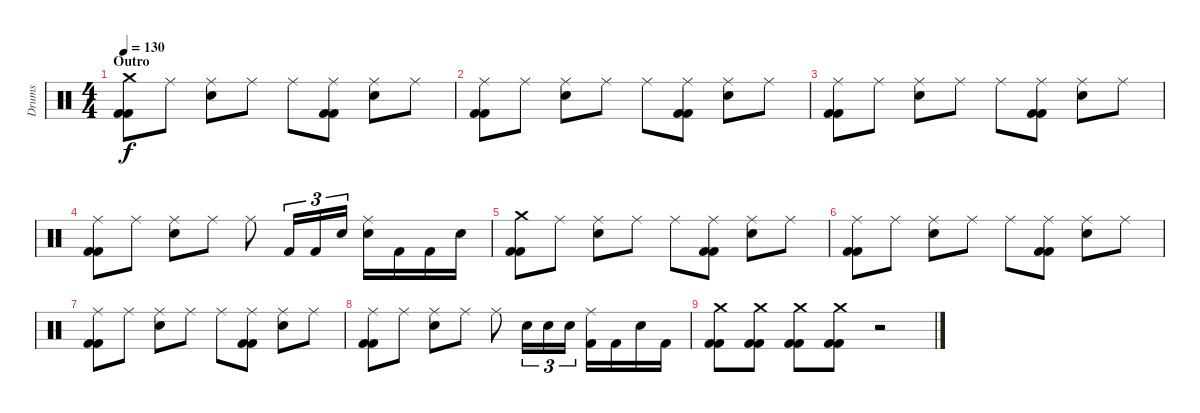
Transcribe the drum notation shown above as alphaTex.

\track ("Drums" "Drums") {instrument percussion}
\staff {score}
\articulation defaults
\ts (4 4)
\section ("" "Outro")
\tempo 130
\clef neutral
\ks c
("Crash medium (hit)" "Kick (hit) 2" "Kick (hit) 2").8{dy f} "Ride (middle)".8 ("Ride (middle)" "Electric Snare (hit)").8 "Ride (middle)".8 "Ride (middle)".8 ("Ride (middle)" "Kick (hit) 2" "Kick (hit) 2").8 ("Ride (middle)" "Electric Snare (hit)").8 "Ride (middle)".8 |
("Ride (middle)" "Kick (hit) 2" "Kick (hit) 2").8 "Ride (middle)".8 ("Ride (middle)" "Electric Snare (hit)").8 "Ride (middle)".8 "Ride (middle)".8 ("Ride (middle)" "Kick (hit) 2" "Kick (hit) 2").8 ("Ride (middle)" "Electric Snare (hit)").8 "Ride (middle)".8 |
("Ride (middle)" "Kick (hit) 2" "Kick (hit) 2").8 "Ride (middle)".8 ("Ride (middle)" "Electric Snare (hit)").8 "Ride (middle)".8 "Ride (middle)".8 ("Ride (middle)" "Kick (hit) 2" "Kick (hit) 2").8 ("Ride (middle)" "Electric Snare (hit)").8 "Ride (middle)".8 |
("Ride (middle)" "Kick (hit) 2" "Kick (hit) 2").8 "Ride (middle)".8 ("Ride (middle)" "Electric Snare (hit)").8 "Ride (middle)".8 "Ride (middle)".8 "Kick (hit) 2".16{tu (3 2)} "Kick (hit) 2".16{tu (3 2)} "Electric Snare (hit)".16{tu (3 2)} ("Ride (middle)" "Electric Snare (hit)").16 "Kick (hit) 2".16 "Kick (hit) 2".16 "Electric Snare (hit)".16 |
("Crash medium (hit)" "Kick (hit) 2" "Kick (hit) 2").8 "Ride (middle)".8 ("Ride (middle)" "Electric Snare (hit)").8 "Ride (middle)".8 "Ride (middle)".8 ("Ride (middle)" "Kick (hit) 2" "Kick (hit) 2").8 ("Ride (middle)" "Electric Snare (hit)").8 "Ride (middle)".8 |
("Ride (middle)" "Kick (hit) 2" "Kick (hit) 2").8 "Ride (middle)".8 ("Ride (middle)" "Electric Snare (hit)").8 "Ride (middle)".8 "Ride (middle)".8 ("Ride (middle)" "Kick (hit) 2" "Kick (hit) 2").8 ("Ride (middle)" "Electric Snare (hit)").8 "Ride (middle)".8 |
("Ride (middle)" "Kick (hit) 2" "Kick (hit) 2").8 "Ride (middle)".8 ("Ride (middle)" "Electric Snare (hit)").8 "Ride (middle)".8 "Ride (middle)".8 ("Ride (middle)" "Kick (hit) 2" "Kick (hit) 2").8 ("Ride (middle)" "Electric Snare (hit)").8 "Ride (middle)".8 |
("Ride (middle)" "Kick (hit) 2" "Kick (hit) 2").8 "Ride (middle)".8 ("Ride (middle)" "Electric Snare (hit)").8 "Ride (middle)".8 "Ride (middle)".8 "Electric Snare (hit)".16{tu (3 2)} "Electric Snare (hit)".16{tu (3 2)} "Electric Snare (hit)".16{tu (3 2)} ("Ride (middle)" "Kick (hit) 2").16 "Kick (hit) 2".16 "Electric Snare (hit)".16 "Kick (hit) 2".16 |
("Crash medium (hit)" "Kick (hit) 2" "Kick (hit) 2").8 ("Crash medium (hit)" "Kick (hit) 2" "Kick (hit) 2").8 ("Crash medium (hit)" "Kick (hit) 2" "Kick (hit) 2").8 ("Crash medium (hit)" "Kick (hit) 2" "Kick (hit) 2").8 r.2
